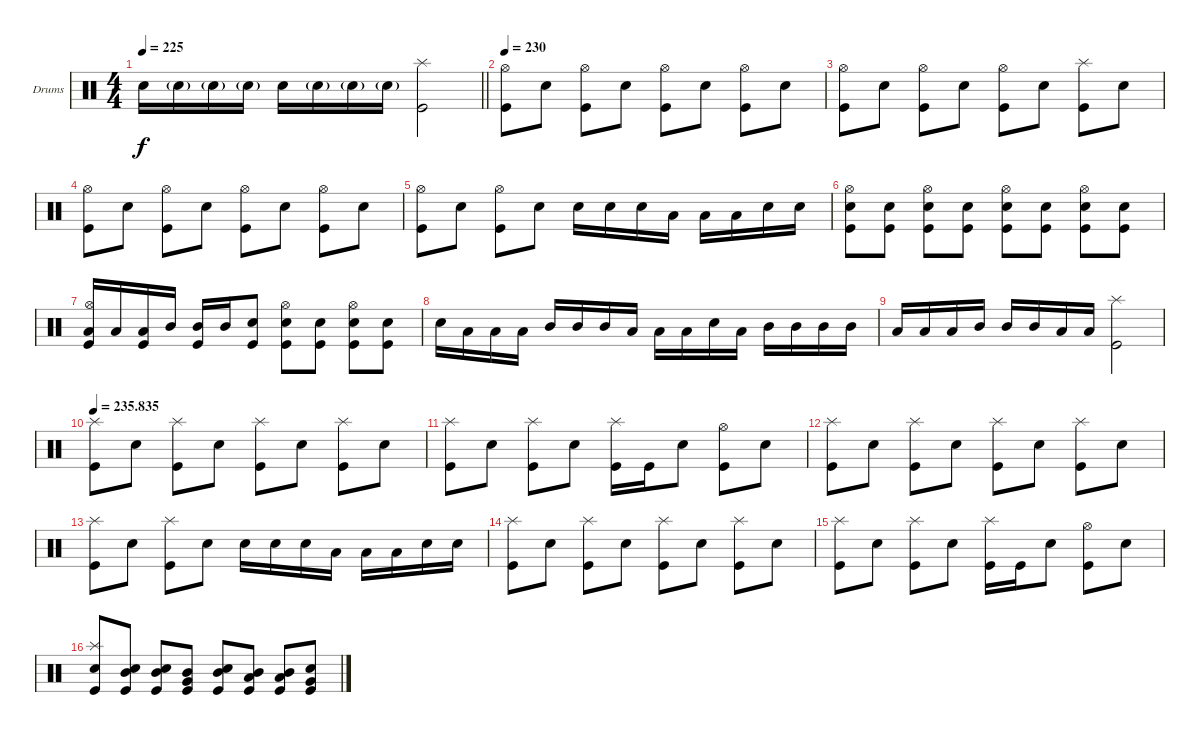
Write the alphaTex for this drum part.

\bracketExtendMode groupsimilarinstruments
\firstSystemTrackNameOrientation horizontal
\otherSystemsTrackNameOrientation horizontal
\track ("Drumkit" "Drums") {instrument percussion}
\staff {score}
\articulation defaults
\ts (4 4)
\tempo 225
\clef neutral
\barLineRight lightlight
\ks c "Snare (hit) 2".16{dy f} "Snare (hit) 2"{g}.16 "Snare (hit) 2"{g}.16 "Snare (hit) 2"{g}.16 "Snare (hit) 2".16 "Snare (hit) 2"{g}.16 "Snare (hit) 2"{g}.16 "Snare (hit) 2"{g}.16
("Splash (hit)" "Kick (hit)").2 |
\tempo 230
("Hi-Hat (open)" "Kick (hit)").8 "Snare (hit) 2".8 ("Hi-Hat (open)" "Kick (hit)").8 "Snare (hit) 2".8 ("Hi-Hat (open)" "Kick (hit)").8 "Snare (hit) 2".8 ("Hi-Hat (open)" "Kick (hit)").8 "Snare (hit) 2".8 |
("Hi-Hat (open)" "Kick (hit)").8 "Snare (hit) 2".8 ("Hi-Hat (open)" "Kick (hit)").8 "Snare (hit) 2".8 ("Hi-Hat (open)" "Kick (hit)").8 "Snare (hit) 2".8 ("Splash (hit)" "Kick (hit)").8 "Snare (hit) 2".8 |
("Hi-Hat (open)" "Kick (hit)").8 "Snare (hit) 2".8 ("Hi-Hat (open)" "Kick (hit)").8 "Snare (hit) 2".8 ("Hi-Hat (open)" "Kick (hit)").8 "Snare (hit) 2".8 ("Hi-Hat (open)" "Kick (hit)").8 "Snare (hit) 2".8 |
("Hi-Hat (open)" "Kick (hit)").8 "Snare (hit) 2".8 ("Hi-Hat (open)" "Kick (hit)").8 "Snare (hit) 2".8 "Snare (hit) 2".16 "Snare (hit) 2".16 "Snare (hit) 2".16 "Low Tom (hit)".16 "Low Tom (hit)".16 "Low Tom (hit)".16 "Snare (hit) 2".16 "Snare (hit) 2".16 |
("Hi-Hat (open)" "Snare (hit) 2" "Kick (hit)").8 ("Snare (hit) 2" "Kick (hit)").8 ("Hi-Hat (open)" "Snare (hit) 2" "Kick (hit)").8 ("Snare (hit) 2" "Kick (hit)").8 ("Hi-Hat (open)" "Snare (hit) 2" "Kick (hit)").8 ("Snare (hit) 2" "Kick (hit)").8 ("Hi-Hat (open)" "Snare (hit) 2" "Kick (hit)").8 ("Snare (hit) 2" "Kick (hit)").8 |
("Hi-Hat (open)" "Low Tom (hit)" "Kick (hit)").16 "Low Tom (hit)".16 ("Low Tom (hit)" "Kick (hit)").16 "Mid Tom (hit)".16 ("Mid Tom (hit)" "Kick (hit)").16 "Mid Tom (hit)".16 ("Snare (hit) 2" "Kick (hit)").8 ("Hi-Hat (open)" "Snare (hit) 2" "Kick (hit)").8 ("Snare (hit) 2" "Kick (hit)").8 ("Hi-Hat (open)" "Snare (hit) 2" "Kick (hit)").8 ("Snare (hit) 2" "Kick (hit)").8 |
"Snare (hit) 2".16 "Low Tom (hit)".16 "Low Tom (hit)".16 "Low Tom (hit)".16 "Mid Tom (hit)".16 "Mid Tom (hit)".16 "Mid Tom (hit)".16 "Low Tom (hit)".16 "Low Tom (hit)".16 "Low Tom (hit)".16 "Snare (hit) 2".16 "Low Tom (hit)".16 "Mid Tom (hit)".16 "Mid Tom (hit)".16 "Mid Tom (hit)".16 "Mid Tom (hit)".16 |
"Low Tom (hit)".16 "Low Tom (hit)".16 "Low Tom (hit)".16 "Mid Tom (hit)".16 "Mid Tom (hit)".16 "Mid Tom (hit)".16 "Low Tom (hit)".16 "Low Tom (hit)".16 ("Splash (hit)" "Kick (hit)").2 |
\tempo
235.835 ("Splash (hit)" "Kick (hit)").8 "Snare (hit) 2".8 ("Splash (hit)" "Kick (hit)").8 "Snare (hit) 2".8 ("Splash (hit)" "Kick (hit)").8 "Snare (hit) 2".8 ("Splash (hit)" "Kick (hit)").8 "Snare (hit) 2".8 |
("Splash (hit)" "Kick (hit)").8 "Snare (hit) 2".8 ("Splash (hit)" "Kick (hit)").8 "Snare (hit) 2".8 ("Splash (hit)" "Kick (hit)").16 "Kick (hit)".16 "Snare (hit) 2".8 ("Hi-Hat (open)" "Kick (hit)").8 "Snare (hit) 2".8 |
("Splash (hit)" "Kick (hit)").8 "Snare (hit) 2".8 ("Splash (hit)" "Kick (hit)").8 "Snare (hit) 2".8 ("Splash (hit)" "Kick (hit)").8 "Snare (hit) 2".8 ("Splash (hit)" "Kick (hit)").8 "Snare (hit) 2".8 |
("Splash (hit)" "Kick (hit)").8 "Snare (hit) 2".8 ("Splash (hit)" "Kick (hit)").8 "Snare (hit) 2".8 "Snare (hit) 2".16 "Snare (hit) 2".16 "Snare (hit) 2".16 "Low Tom (hit)".16 "Low Tom (hit)".16 "Low Tom (hit)".16 "Snare (hit) 2".16 "Snare (hit) 2".16 |
("Splash (hit)" "Kick (hit)").8 "Snare (hit) 2".8 ("Splash (hit)" "Kick (hit)").8 "Snare (hit) 2".8 ("Splash (hit)" "Kick (hit)").8 "Snare (hit) 2".8 ("Splash (hit)" "Kick (hit)").8 "Snare (hit) 2".8 |
("Splash (hit)" "Kick (hit)").8 "Snare (hit) 2".8 ("Splash (hit)" "Kick (hit)").8 "Snare (hit) 2".8 ("Splash (hit)" "Kick (hit)").16 "Kick (hit)".16 "Snare (hit) 2".8 ("Hi-Hat (open)" "Kick (hit)").8 "Snare (hit) 2".8 |
("Splash (hit)" "Snare (hit) 2" "Kick (hit)").8 ("Mid Tom (hit)" "Snare (hit) 2" "Kick (hit)").8 ("Mid Tom (hit)" "Snare (hit) 2" "Kick (hit)").8 ("Very Low Tom (hit)" "Mid Tom (hit)" "Kick (hit)").8 ("Mid Tom (hit)" "Snare (hit) 2" "Kick (hit)").8 ("Mid Tom (hit)" "Low Tom (hit)" "Kick (hit)").8 ("Mid Tom (hit)" "Low Tom (hit)" "Kick (hit)").8 ("Very Low Tom (hit)" "Snare (hit) 2" "Kick (hit)").8
